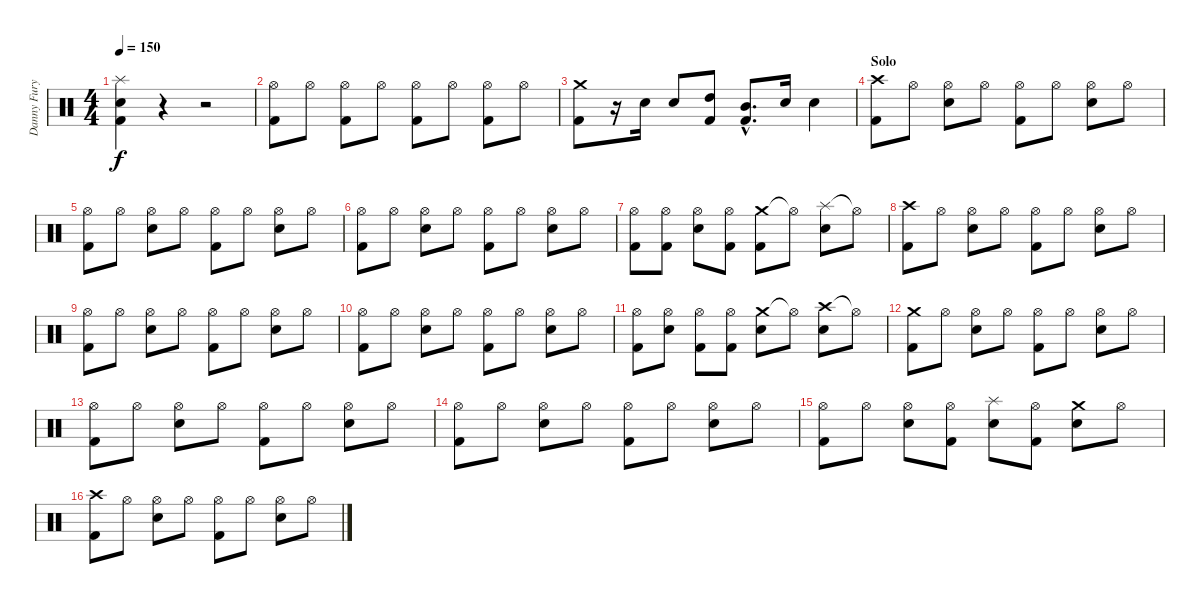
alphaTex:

\track ("Danny Fury" "Danny Fury") {instrument percussion}
\staff {score}
\articulation defaults
\ts (4 4)
\tempo 150
\clef neutral
\ks c
("Splash (hit)" "Electric Snare (hit)" "Kick (hit) 2").4{dy f} r.4 r.2 |
("Hi-Hat (open)" "Kick (hit) 2").8 "Hi-Hat (open)".8 ("Hi-Hat (open)" "Kick (hit) 2").8 "Hi-Hat (open)".8 ("Hi-Hat (open)" "Kick (hit) 2").8 "Hi-Hat (open)".8 ("Hi-Hat (open)" "Kick (hit) 2").8 "Hi-Hat (open)".8 |
("Crash medium (hit)" "Kick (hit) 2").8 r.16 "Electric Snare (hit)".16 "Electric Snare (hit)".8 ("High Tom (hit)" "Kick (hit) 2").8 ("Mid Tom (hit)"{hac} "Kick (hit) 2"{hac}).8{d} "Electric Snare (hit)".16 "Electric Snare (hit)".4 |
\section ("" "Solo")
("Crash high (hit)" "Kick (hit) 2").8 "Hi-Hat (open)".8 ("Hi-Hat (open)" "Electric Snare (hit)").8 "Hi-Hat (open)".8 ("Hi-Hat (open)" "Kick (hit) 2").8 "Hi-Hat (open)".8 ("Hi-Hat (open)" "Electric Snare (hit)").8 "Hi-Hat (open)".8 |
("Hi-Hat (open)" "Kick (hit) 2").8 "Hi-Hat (open)".8 ("Hi-Hat (open)" "Electric Snare (hit)").8 "Hi-Hat (open)".8 ("Hi-Hat (open)" "Kick (hit) 2").8 "Hi-Hat (open)".8 ("Hi-Hat (open)" "Electric Snare (hit)").8 "Hi-Hat (open)".8 |
("Hi-Hat (open)" "Kick (hit) 2").8 "Hi-Hat (open)".8 ("Hi-Hat (open)" "Electric Snare (hit)").8 "Hi-Hat (open)".8 ("Hi-Hat (open)" "Kick (hit) 2").8 "Hi-Hat (open)".8 ("Hi-Hat (open)" "Electric Snare (hit)").8 "Hi-Hat (open)".8 |
("Hi-Hat (open)" "Kick (hit) 2").8 ("Hi-Hat (open)" "Kick (hit) 2").8 ("Hi-Hat (open)" "Electric Snare (hit)").8 ("Hi-Hat (open)" "Kick (hit) 2").8 ("Crash medium (hit)" "Kick (hit) 2").8 "Hi-Hat (open)"{t}.8 ("Splash (hit)" "Electric Snare (hit)").8 "Hi-Hat (open)"{t}.8 |
("Crash high (hit)" "Kick (hit) 2").8 "Hi-Hat (open)".8 ("Hi-Hat (open)" "Electric Snare (hit)").8 "Hi-Hat (open)".8 ("Hi-Hat (open)" "Kick (hit) 2").8 "Hi-Hat (open)".8 ("Hi-Hat (open)" "Electric Snare (hit)").8 "Hi-Hat (open)".8 |
("Hi-Hat (open)" "Kick (hit) 2").8 "Hi-Hat (open)".8 ("Hi-Hat (open)" "Electric Snare (hit)").8 "Hi-Hat (open)".8 ("Hi-Hat (open)" "Kick (hit) 2").8 "Hi-Hat (open)".8 ("Hi-Hat (open)" "Electric Snare (hit)").8 "Hi-Hat (open)".8 |
("Hi-Hat (open)" "Kick (hit) 2").8 "Hi-Hat (open)".8 ("Hi-Hat (open)" "Electric Snare (hit)").8 "Hi-Hat (open)".8 ("Hi-Hat (open)" "Kick (hit) 2").8 "Hi-Hat (open)".8 ("Hi-Hat (open)" "Electric Snare (hit)").8 "Hi-Hat (open)".8 |
("Hi-Hat (open)" "Kick (hit) 2").8 ("Hi-Hat (open)" "Electric Snare (hit)").8 ("Hi-Hat (open)" "Kick (hit) 2").8 ("Hi-Hat (open)" "Kick (hit) 2").8 ("Crash medium (hit)" "Electric Snare (hit)").8 "Hi-Hat (open)"{t}.8 ("Crash high (hit)" "Electric Snare (hit)").8 "Hi-Hat (open)"{t}.8 |
("Crash medium (hit)" "Kick (hit) 2").8 "Hi-Hat (open)".8 ("Hi-Hat (open)" "Electric Snare (hit)").8 "Hi-Hat (open)".8 ("Hi-Hat (open)" "Kick (hit) 2").8 "Hi-Hat (open)".8 ("Hi-Hat (open)" "Electric Snare (hit)").8 "Hi-Hat (open)".8 |
("Hi-Hat (open)" "Kick (hit) 2").8 "Hi-Hat (open)".8 ("Hi-Hat (open)" "Electric Snare (hit)").8 "Hi-Hat (open)".8 ("Hi-Hat (open)" "Kick (hit) 2").8 "Hi-Hat (open)".8 ("Hi-Hat (open)" "Electric Snare (hit)").8 "Hi-Hat (open)".8 |
("Hi-Hat (open)" "Kick (hit) 2").8 "Hi-Hat (open)".8 ("Hi-Hat (open)" "Electric Snare (hit)").8 "Hi-Hat (open)".8 ("Hi-Hat (open)" "Kick (hit) 2").8 "Hi-Hat (open)".8 ("Hi-Hat (open)" "Electric Snare (hit)").8 "Hi-Hat (open)".8 |
("Hi-Hat (open)" "Kick (hit) 2").8 "Hi-Hat (open)".8 ("Hi-Hat (open)" "Electric Snare (hit)").8 ("Hi-Hat (open)" "Kick (hit) 2").8 ("Splash (hit)" "Electric Snare (hit)").8 ("Hi-Hat (open)" "Kick (hit) 2").8 ("Crash medium (hit)" "Electric Snare (hit)").8 "Hi-Hat (open)".8 |
("Crash high (hit)" "Kick (hit) 2").8 "Hi-Hat (open)".8 ("Hi-Hat (open)" "Electric Snare (hit)").8 "Hi-Hat (open)".8 ("Hi-Hat (open)" "Kick (hit) 2").8 "Hi-Hat (open)".8 ("Hi-Hat (open)" "Electric Snare (hit)").8 "Hi-Hat (open)".8
